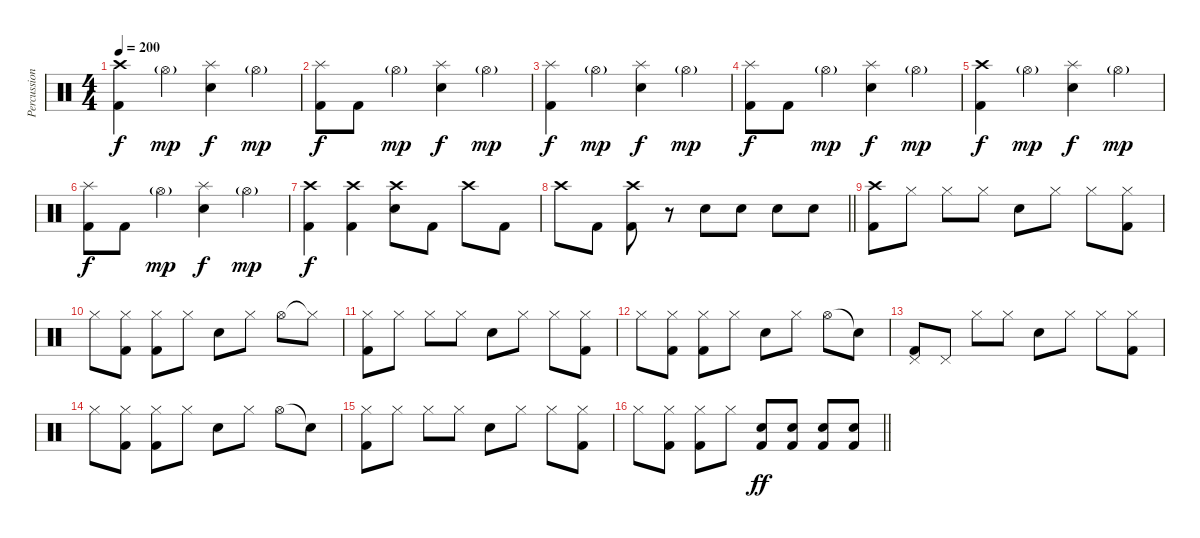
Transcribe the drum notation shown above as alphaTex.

\track ("Percussion" "Percussion") {instrument percussion}
\staff {score}
\articulation defaults
\ts (4 4)
\section ("" "")
\tempo 200
\clef neutral
\ks c
("Crash high (hit)" "Kick (hit) 2").4{dy f} "Hi-Hat (open)"{g}.4{dy mp} ("Splash (hit)" "Electric Snare (hit)").4{dy f} "Hi-Hat (open)"{g}.4{dy mp} |
("Splash (hit)" "Kick (hit) 2").8{dy f} "Kick (hit) 2".8 "Hi-Hat (open)"{g}.4{dy mp} ("Splash (hit)" "Electric Snare (hit)").4{dy f} "Hi-Hat (open)"{g}.4{dy mp} |
("Splash (hit)" "Kick (hit) 2").4{dy f} "Hi-Hat (open)"{g}.4{dy mp} ("Splash (hit)" "Electric Snare (hit)").4{dy f} "Hi-Hat (open)"{g}.4{dy mp} |
("Splash (hit)" "Kick (hit) 2").8{dy f} "Kick (hit) 2".8 "Hi-Hat (open)"{g}.4{dy mp} ("Splash (hit)" "Electric Snare (hit)").4{dy f} "Hi-Hat (open)"{g}.4{dy mp} |
("Crash high (hit)" "Kick (hit) 2").4{dy f} "Hi-Hat (open)"{g}.4{dy mp} ("Splash (hit)" "Electric Snare (hit)").4{dy f} "Hi-Hat (open)"{g}.4{dy mp} |
("Splash (hit)" "Kick (hit) 2").8{dy f} "Kick (hit) 2".8 "Hi-Hat (open)"{g}.4{dy mp} ("Splash (hit)" "Electric Snare (hit)").4{dy f} "Hi-Hat (open)"{g}.4{dy mp} |
("Crash high (hit)" "Kick (hit) 2").4{dy f} ("Crash high (hit)" "Kick (hit) 2").4 ("Crash high (hit)" "Electric Snare (hit)").8 "Kick (hit) 2".8 "Crash high (hit)".8 "Kick (hit) 2".8 |
\barLineRight lightlight "Crash high (hit)".8 "Kick (hit) 2".8
("Crash high (hit)" "Kick (hit) 2").8 r.8 "Electric Snare (hit)".8 "Electric Snare (hit)".8 "Electric Snare (hit)".8 "Electric Snare (hit)".8 |
\section ("" "")
("Crash high (hit)" "Kick (hit) 2").8 "Hi-Hat (closed)".8 "Hi-Hat (closed)".8 "Hi-Hat (closed)".8 "Electric Snare (hit)".8 "Hi-Hat (closed)".8 "Hi-Hat (closed)".8 ("Hi-Hat (closed)" "Kick (hit) 2").8 |
"Hi-Hat (closed)".8 ("Hi-Hat (closed)" "Kick (hit) 2").8 ("Hi-Hat (closed)" "Kick (hit) 2").8 "Hi-Hat (closed)".8 "Electric Snare (hit)".8 "Hi-Hat (closed)".8 "Hi-Hat (open)".8 "Hi-Hat (closed)"{t}.8 |
("Hi-Hat (closed)" "Kick (hit) 2").8 "Hi-Hat (closed)".8 "Hi-Hat (closed)".8 "Hi-Hat (closed)".8 "Electric Snare (hit)".8 "Hi-Hat (closed)".8 "Hi-Hat (closed)".8 ("Hi-Hat (closed)" "Kick (hit) 2").8 |
"Hi-Hat (closed)".8 ("Hi-Hat (closed)" "Kick (hit) 2").8 ("Hi-Hat (closed)" "Kick (hit) 2").8 "Hi-Hat (closed)".8 "Electric Snare (hit)".8 "Hi-Hat (closed)".8 "Hi-Hat (open)".8 "Snare (hit)"{t}.8 |
("Pedal Hi-Hat (hit)" "Kick (hit) 2").8 "Pedal Hi-Hat (hit)".8 "Hi-Hat (closed)".8 "Hi-Hat (closed)".8 "Electric Snare (hit)".8 "Hi-Hat (closed)".8 "Hi-Hat (closed)".8 ("Hi-Hat (closed)" "Kick (hit) 2").8 |
"Hi-Hat (closed)".8 ("Hi-Hat (closed)" "Kick (hit) 2").8 ("Hi-Hat (closed)" "Kick (hit) 2").8 "Hi-Hat (closed)".8 "Electric Snare (hit)".8 "Hi-Hat (closed)".8 "Hi-Hat (open)".8 "Snare (hit)"{t}.8 |
("Hi-Hat (closed)" "Kick (hit) 2").8 "Hi-Hat (closed)".8 "Hi-Hat (closed)".8 "Hi-Hat (closed)".8 "Electric Snare (hit)".8 "Hi-Hat (closed)".8 "Hi-Hat (closed)".8 ("Hi-Hat (closed)" "Kick (hit) 2").8 |
\barLineRight lightlight "Hi-Hat (closed)".8
("Hi-Hat (closed)" "Kick (hit) 2").8 ("Hi-Hat (closed)" "Kick (hit) 2").8 "Hi-Hat (closed)".8 ("Electric Snare (hit)" "Kick (hit) 2").8{dy ff} ("Electric Snare (hit)" "Kick (hit) 2").8 ("Electric Snare (hit)" "Kick (hit) 2").8 ("Electric Snare (hit)" "Kick (hit) 2").8
